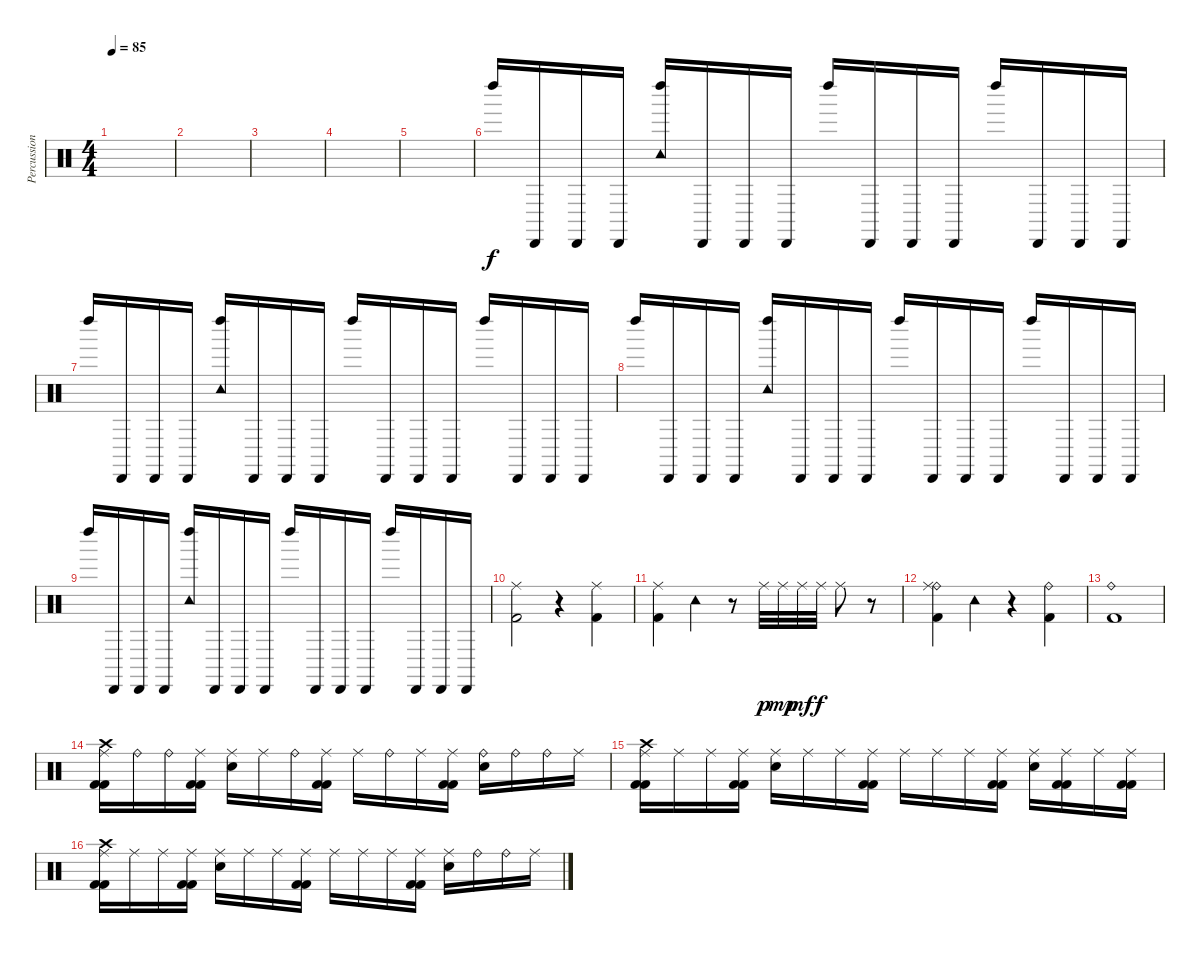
\track ("Percussion" "Percussion") {instrument percussion}
\staff {score}
\articulation defaults
\ts (4 4)
\tempo 85
\clef neutral
\ks c
|
|
|
|
|
"Left Maraca (hit)".16 "Cabasa (hit)".16 "Cabasa (hit)".16 "Cabasa (hit)".16 ("Left Maraca (hit)" "Tambourine (hit)").16 "Cabasa (hit)".16 "Cabasa (hit)".16 "Cabasa (hit)".16 "Left Maraca (hit)".16 "Cabasa (hit)".16 "Cabasa (hit)".16 "Cabasa (hit)".16 "Left Maraca (hit)".16 "Cabasa (hit)".16 "Cabasa (hit)".16 "Cabasa (hit)".16 |
"Left Maraca (hit)".16 "Cabasa (hit)".16 "Cabasa (hit)".16 "Cabasa (hit)".16 ("Left Maraca (hit)" "Tambourine (hit)").16 "Cabasa (hit)".16 "Cabasa (hit)".16 "Cabasa (hit)".16 "Left Maraca (hit)".16 "Cabasa (hit)".16 "Cabasa (hit)".16 "Cabasa (hit)".16 "Left Maraca (hit)".16 "Cabasa (hit)".16 "Cabasa (hit)".16 "Cabasa (hit)".16 |
"Left Maraca (hit)".16 "Cabasa (hit)".16 "Cabasa (hit)".16 "Cabasa (hit)".16 ("Left Maraca (hit)" "Tambourine (hit)").16 "Cabasa (hit)".16 "Cabasa (hit)".16 "Cabasa (hit)".16 "Left Maraca (hit)".16 "Cabasa (hit)".16 "Cabasa (hit)".16 "Cabasa (hit)".16 "Left Maraca (hit)".16 "Cabasa (hit)".16 "Cabasa (hit)".16 "Cabasa (hit)".16 |
"Left Maraca (hit)".16 "Cabasa (hit)".16 "Cabasa (hit)".16 "Cabasa (hit)".16 ("Left Maraca (hit)" "Tambourine (hit)").16 "Cabasa (hit)".16 "Cabasa (hit)".16 "Cabasa (hit)".16 "Left Maraca (hit)".16 "Cabasa (hit)".16 "Cabasa (hit)".16 "Cabasa (hit)".16 "Left Maraca (hit)".16 "Cabasa (hit)".16 "Cabasa (hit)".16 "Cabasa (hit)".16 |
("Ride (middle)" "Kick (hit) 2").2 r.4 ("Ride (middle)" "Kick (hit) 2").4 |
("Ride (middle)" "Kick (hit) 2").4 "Tambourine (hit)".4 r.8 "Ride (middle)".32{dy p} "Ride (middle)".32{dy mp} "Ride (middle)".32{dy mf} "Ride (middle)".32{dy f} "Ride (middle)".8 r.8 |
("Ride (bell)" "Ride (middle)" "Kick (hit) 2").4 "Tambourine (hit)".4 r.4 ("Ride (bell)" "Kick (hit) 2").4 |
("Ride (bell)" "Kick (hit) 2").1 |
("Ride (middle)" "Crash high (hit)" "Kick (hit) 2" "Kick (hit) 2").16 "Ride (bell)".16 "Ride (bell)".16 ("Ride (middle)" "Kick (hit) 2" "Kick (hit) 2").16 ("Ride (middle)" "Electric Snare (hit)").16 "Ride (middle)".16 "Ride (bell)".16 ("Ride (middle)" "Kick (hit) 2" "Kick (hit) 2").16 "Ride (middle)".16 "Ride (bell)".16 "Ride (middle)".16 ("Ride (middle)" "Kick (hit) 2" "Kick (hit) 2").16 ("Ride (bell)" "Electric Snare (hit)").16 "Ride (bell)".16 "Ride (bell)".16 "Ride (middle)".16 |
("Ride (middle)" "Crash high (hit)" "Kick (hit) 2" "Kick (hit) 2").16 "Ride (middle)".16 "Ride (middle)".16 ("Ride (middle)" "Kick (hit) 2" "Kick (hit) 2").16 ("Ride (middle)" "Electric Snare (hit)").16 "Ride (middle)".16 "Ride (middle)".16 ("Ride (middle)" "Kick (hit) 2" "Kick (hit) 2").16 "Ride (middle)".16 "Ride (middle)".16 "Ride (middle)".16 ("Ride (middle)" "Kick (hit) 2" "Kick (hit) 2").16 ("Ride (middle)" "Electric Snare (hit)").16 ("Ride (middle)" "Kick (hit) 2" "Kick (hit) 2").16 "Ride (middle)".16 ("Ride (middle)" "Kick (hit) 2" "Kick (hit) 2").16 |
("Ride (middle)" "Crash high (hit)" "Kick (hit) 2" "Kick (hit) 2").16 "Ride (middle)".16 "Ride (middle)".16 ("Ride (middle)" "Kick (hit) 2" "Kick (hit) 2").16 ("Ride (middle)" "Electric Snare (hit)").16 "Ride (middle)".16 "Ride (middle)".16 ("Ride (middle)" "Kick (hit) 2" "Kick (hit) 2").16 "Ride (middle)".16 "Ride (middle)".16 "Ride (middle)".16 ("Ride (middle)" "Kick (hit) 2" "Kick (hit) 2").16 ("Ride (middle)" "Electric Snare (hit)").16 "Ride (bell)".16 "Ride (bell)".16 "Ride (middle)".16
